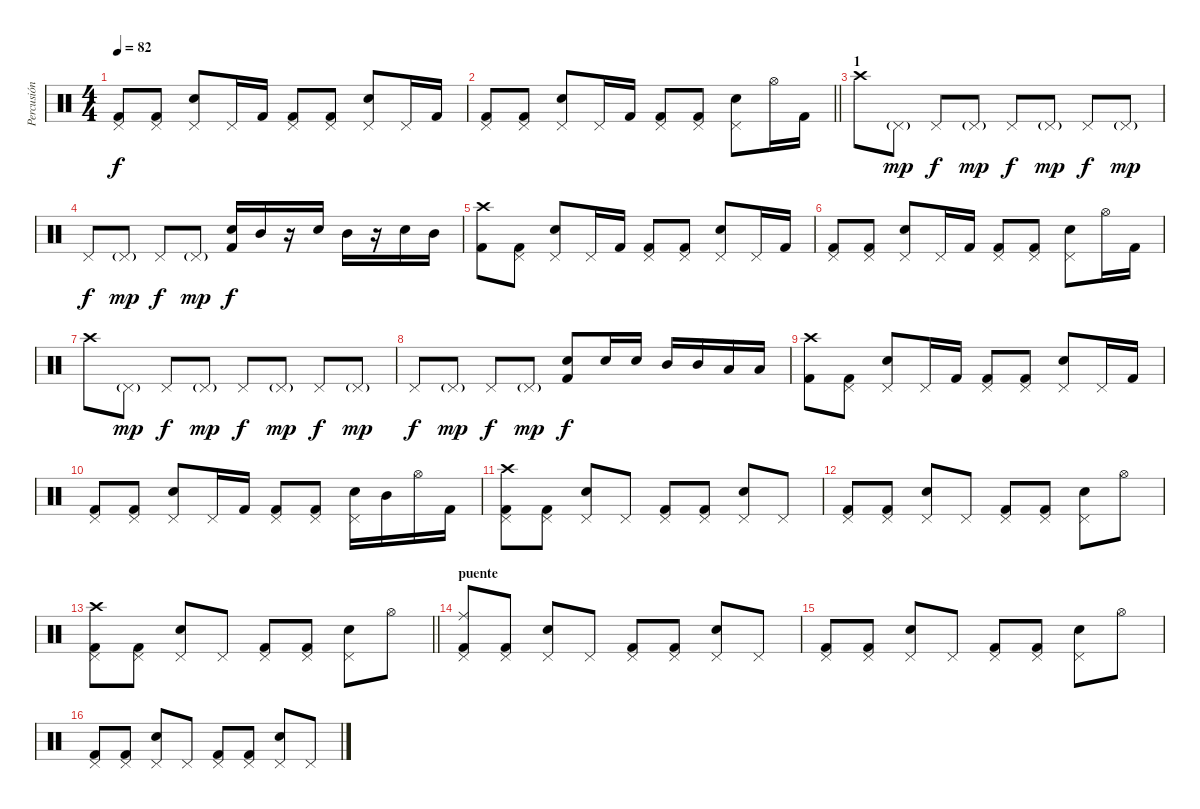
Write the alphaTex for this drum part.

\track ("Percusión" "Percusión") {instrument percussion}
\staff {score}
\articulation defaults
\ts (4 4)
\tempo 82
\clef neutral
\ks c
("Pedal Hi-Hat (hit)" "Kick (hit) 2").8{dy f} ("Pedal Hi-Hat (hit)" "Kick (hit) 2").8 ("Pedal Hi-Hat (hit)" "Snare (hit) 2").8 "Pedal Hi-Hat (hit)".16 "Kick (hit) 2".16 ("Pedal Hi-Hat (hit)" "Kick (hit) 2").8 ("Pedal Hi-Hat (hit)" "Kick (hit) 2").8 ("Pedal Hi-Hat (hit)" "Snare (hit) 2").8 "Pedal Hi-Hat (hit)".16 "Kick (hit) 2".16 |
\barLineRight lightlight
("Pedal Hi-Hat (hit)" "Kick (hit) 2").8 ("Pedal Hi-Hat (hit)" "Kick (hit) 2").8 ("Pedal Hi-Hat (hit)" "Snare (hit) 2").8 "Pedal Hi-Hat (hit)".16 "Kick (hit) 2".16 ("Pedal Hi-Hat (hit)" "Kick (hit) 2").8 ("Pedal Hi-Hat (hit)" "Kick (hit) 2").8 ("Pedal Hi-Hat (hit)" "Snare (hit) 2").8 "Hi-Hat (open)".16 "Kick (hit) 2".16 |
\section ("" "1")
"Crash high (hit)".8 "Pedal Hi-Hat (hit)"{g}.8{dy mp} "Pedal Hi-Hat (hit)".8{dy f} "Pedal Hi-Hat (hit)"{g}.8{dy mp} "Pedal Hi-Hat (hit)".8{dy f} "Pedal Hi-Hat (hit)"{g}.8{dy mp} "Pedal Hi-Hat (hit)".8{dy f} "Pedal Hi-Hat (hit)"{g}.8{dy mp} |
"Pedal Hi-Hat (hit)".8{dy f} "Pedal Hi-Hat (hit)"{g}.8{dy mp} "Pedal Hi-Hat (hit)".8{dy f} "Pedal Hi-Hat (hit)"{g}.8{dy mp} ("Snare (hit) 2" "Kick (hit) 2").16{dy f} "Mid Tom (hit)".16 r.16 "Snare (hit) 2".16 "Mid Tom (hit)".16 r.16 "Snare (hit) 2".16 "Mid Tom (hit)".16 |
("Crash high (hit)" "Kick (hit) 2").8 ("Pedal Hi-Hat (hit)" "Kick (hit) 2").8 ("Pedal Hi-Hat (hit)" "Snare (hit) 2").8 "Pedal Hi-Hat (hit)".16 "Kick (hit) 2".16 ("Pedal Hi-Hat (hit)" "Kick (hit) 2").8 ("Pedal Hi-Hat (hit)" "Kick (hit) 2").8 ("Pedal Hi-Hat (hit)" "Snare (hit) 2").8 "Pedal Hi-Hat (hit)".16 "Kick (hit) 2".16 |
("Pedal Hi-Hat (hit)" "Kick (hit) 2").8 ("Pedal Hi-Hat (hit)" "Kick (hit) 2").8 ("Pedal Hi-Hat (hit)" "Snare (hit) 2").8 "Pedal Hi-Hat (hit)".16 "Kick (hit) 2".16 ("Pedal Hi-Hat (hit)" "Kick (hit) 2").8 ("Pedal Hi-Hat (hit)" "Kick (hit) 2").8 ("Pedal Hi-Hat (hit)" "Snare (hit) 2").8 "Hi-Hat (open)".16 "Kick (hit) 2".16 |
"Crash high (hit)".8 "Pedal Hi-Hat (hit)"{g}.8{dy mp} "Pedal Hi-Hat (hit)".8{dy f} "Pedal Hi-Hat (hit)"{g}.8{dy mp} "Pedal Hi-Hat (hit)".8{dy f} "Pedal Hi-Hat (hit)"{g}.8{dy mp} "Pedal Hi-Hat (hit)".8{dy f} "Pedal Hi-Hat (hit)"{g}.8{dy mp} |
"Pedal Hi-Hat (hit)".8{dy f} "Pedal Hi-Hat (hit)"{g}.8{dy mp} "Pedal Hi-Hat (hit)".8{dy f} "Pedal Hi-Hat (hit)"{g}.8{dy mp} ("Snare (hit) 2" "Kick (hit) 2").8{dy f} "Snare (hit) 2".16 "Snare (hit) 2".16 "Mid Tom (hit)".16 "Mid Tom (hit)".16 "Low Tom (hit)".16 "Low Tom (hit)".16 |
("Crash high (hit)" "Kick (hit) 2").8 ("Pedal Hi-Hat (hit)" "Kick (hit) 2").8 ("Pedal Hi-Hat (hit)" "Snare (hit) 2").8 "Pedal Hi-Hat (hit)".16 "Kick (hit) 2".16 ("Pedal Hi-Hat (hit)" "Kick (hit) 2").8 ("Pedal Hi-Hat (hit)" "Kick (hit) 2").8 ("Pedal Hi-Hat (hit)" "Snare (hit) 2").8 "Pedal Hi-Hat (hit)".16 "Kick (hit) 2".16 |
("Pedal Hi-Hat (hit)" "Kick (hit) 2").8 ("Pedal Hi-Hat (hit)" "Kick (hit) 2").8 ("Pedal Hi-Hat (hit)" "Snare (hit) 2").8 "Pedal Hi-Hat (hit)".16 "Kick (hit) 2".16 ("Pedal Hi-Hat (hit)" "Kick (hit) 2").8 ("Pedal Hi-Hat (hit)" "Kick (hit) 2").8 ("Pedal Hi-Hat (hit)" "Snare (hit) 2").16 "Mid Tom (hit)".16 "Hi-Hat (open)".16 "Kick (hit) 2".16 |
("Crash high (hit)" "Pedal Hi-Hat (hit)" "Kick (hit) 2").8 ("Pedal Hi-Hat (hit)" "Kick (hit) 2").8 ("Pedal Hi-Hat (hit)" "Snare (hit) 2").8 "Pedal Hi-Hat (hit)".8 ("Pedal Hi-Hat (hit)" "Kick (hit) 2").8 ("Pedal Hi-Hat (hit)" "Kick (hit) 2").8 ("Pedal Hi-Hat (hit)" "Snare (hit) 2").8 "Pedal Hi-Hat (hit)".8 |
("Pedal Hi-Hat (hit)" "Kick (hit) 2").8 ("Pedal Hi-Hat (hit)" "Kick (hit) 2").8 ("Pedal Hi-Hat (hit)" "Snare (hit) 2").8 "Pedal Hi-Hat (hit)".8 ("Pedal Hi-Hat (hit)" "Kick (hit) 2").8 ("Pedal Hi-Hat (hit)" "Kick (hit) 2").8 ("Pedal Hi-Hat (hit)" "Snare (hit) 2").8 "Hi-Hat (open)".8 |
\barLineRight lightlight
("Crash high (hit)" "Pedal Hi-Hat (hit)" "Kick (hit) 2").8 ("Pedal Hi-Hat (hit)" "Kick (hit) 2").8 ("Pedal Hi-Hat (hit)" "Snare (hit) 2").8 "Pedal Hi-Hat (hit)".8 ("Pedal Hi-Hat (hit)" "Kick (hit) 2").8 ("Pedal Hi-Hat (hit)" "Kick (hit) 2").8 ("Pedal Hi-Hat (hit)" "Snare (hit) 2").8 "Hi-Hat (open)".8 |
\section ("" "puente")
("Ride (middle)" "Pedal Hi-Hat (hit)" "Kick (hit) 2").8 ("Pedal Hi-Hat (hit)" "Kick (hit) 2").8 ("Pedal Hi-Hat (hit)" "Snare (hit) 2").8 "Pedal Hi-Hat (hit)".8 ("Pedal Hi-Hat (hit)" "Kick (hit) 2").8 ("Pedal Hi-Hat (hit)" "Kick (hit) 2").8 ("Pedal Hi-Hat (hit)" "Snare (hit) 2").8 "Pedal Hi-Hat (hit)".8 |
("Pedal Hi-Hat (hit)" "Kick (hit) 2").8 ("Pedal Hi-Hat (hit)" "Kick (hit) 2").8 ("Pedal Hi-Hat (hit)" "Snare (hit) 2").8 "Pedal Hi-Hat (hit)".8 ("Pedal Hi-Hat (hit)" "Kick (hit) 2").8 ("Pedal Hi-Hat (hit)" "Kick (hit) 2").8 ("Pedal Hi-Hat (hit)" "Snare (hit) 2").8 "Hi-Hat (open)".8 |
("Pedal Hi-Hat (hit)" "Kick (hit) 2").8 ("Pedal Hi-Hat (hit)" "Kick (hit) 2").8 ("Pedal Hi-Hat (hit)" "Snare (hit) 2").8 "Pedal Hi-Hat (hit)".8 ("Pedal Hi-Hat (hit)" "Kick (hit) 2").8 ("Pedal Hi-Hat (hit)" "Kick (hit) 2").8 ("Pedal Hi-Hat (hit)" "Snare (hit) 2").8 "Pedal Hi-Hat (hit)".8
